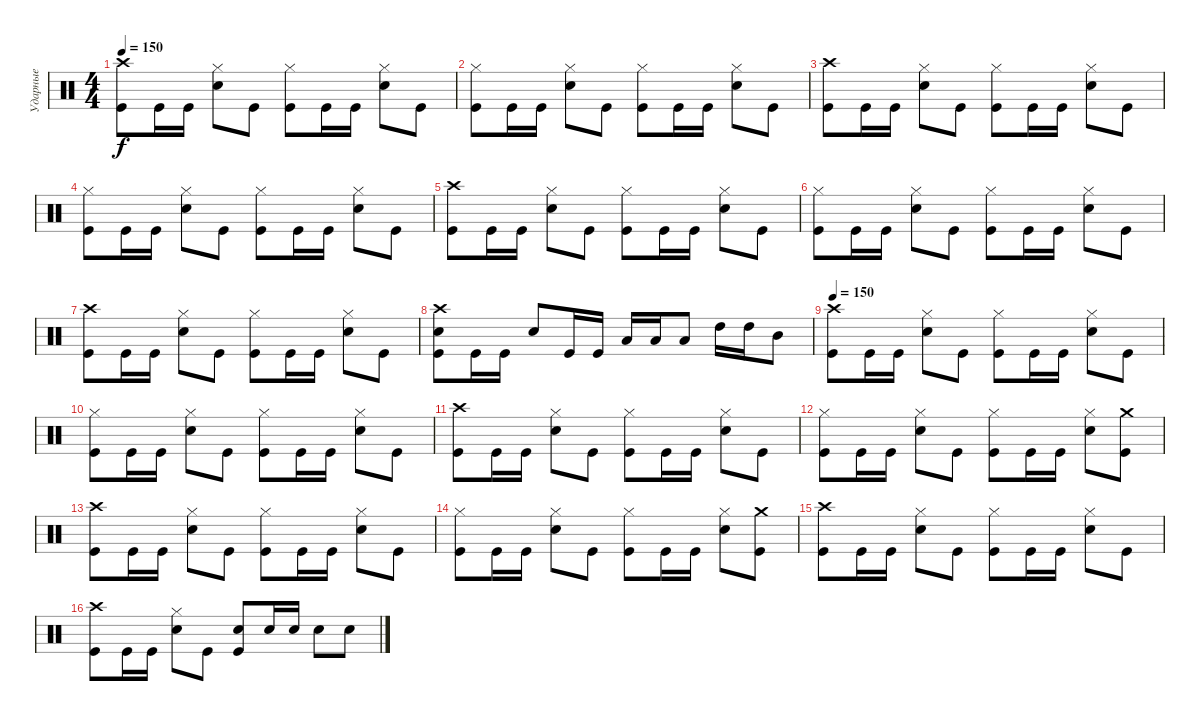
\track ("Ударные" "Ударные") {instrument percussion}
\staff {score}
\articulation defaults
\ts (4 4)
\tempo 150
\clef neutral
\ks c
("Crash high (hit)" "Kick (hit)").8{dy f} "Kick (hit)".16 "Kick (hit)".16 ("Hi-Hat (closed)" "Electric Snare (hit)").8 "Kick (hit)".8 ("Hi-Hat (closed)" "Kick (hit)").8 "Kick (hit)".16 "Kick (hit)".16 ("Hi-Hat (closed)" "Electric Snare (hit)").8 "Kick (hit)".8 |
("Hi-Hat (closed)" "Kick (hit)").8 "Kick (hit)".16 "Kick (hit)".16 ("Hi-Hat (closed)" "Electric Snare (hit)").8 "Kick (hit)".8 ("Hi-Hat (closed)" "Kick (hit)").8 "Kick (hit)".16 "Kick (hit)".16 ("Hi-Hat (closed)" "Electric Snare (hit)").8 "Kick (hit)".8 |
("Crash high (hit)" "Kick (hit)").8 "Kick (hit)".16 "Kick (hit)".16 ("Hi-Hat (closed)" "Electric Snare (hit)").8 "Kick (hit)".8 ("Hi-Hat (closed)" "Kick (hit)").8 "Kick (hit)".16 "Kick (hit)".16 ("Hi-Hat (closed)" "Electric Snare (hit)").8 "Kick (hit)".8 |
("Hi-Hat (closed)" "Kick (hit)").8 "Kick (hit)".16 "Kick (hit)".16 ("Hi-Hat (closed)" "Electric Snare (hit)").8 "Kick (hit)".8 ("Hi-Hat (closed)" "Kick (hit)").8 "Kick (hit)".16 "Kick (hit)".16 ("Hi-Hat (closed)" "Electric Snare (hit)").8 "Kick (hit)".8 |
("Crash high (hit)" "Kick (hit)").8 "Kick (hit)".16 "Kick (hit)".16 ("Hi-Hat (closed)" "Electric Snare (hit)").8 "Kick (hit)".8 ("Hi-Hat (closed)" "Kick (hit)").8 "Kick (hit)".16 "Kick (hit)".16 ("Hi-Hat (closed)" "Electric Snare (hit)").8 "Kick (hit)".8 |
("Hi-Hat (closed)" "Kick (hit)").8 "Kick (hit)".16 "Kick (hit)".16 ("Hi-Hat (closed)" "Electric Snare (hit)").8 "Kick (hit)".8 ("Hi-Hat (closed)" "Kick (hit)").8 "Kick (hit)".16 "Kick (hit)".16 ("Hi-Hat (closed)" "Electric Snare (hit)").8 "Kick (hit)".8 |
("Crash high (hit)" "Kick (hit)").8 "Kick (hit)".16 "Kick (hit)".16 ("Hi-Hat (closed)" "Electric Snare (hit)").8 "Kick (hit)".8 ("Hi-Hat (closed)" "Kick (hit)").8 "Kick (hit)".16 "Kick (hit)".16 ("Hi-Hat (closed)" "Electric Snare (hit)").8 "Kick (hit)".8 |
("Crash high (hit)" "Electric Snare (hit)" "Kick (hit)").8 "Kick (hit)".16 "Kick (hit)".16 "Electric Snare (hit)".8 "Kick (hit)".16 "Kick (hit)".16 "Low Tom (hit)".16 "Low Tom (hit)".16 "Low Tom (hit)".8 "High Tom (hit)".16 "High Tom (hit)".16 "Mid Tom (hit)".8 |
\tempo 150
("Crash high (hit)" "Kick (hit)").8 "Kick (hit)".16 "Kick (hit)".16 ("Hi-Hat (closed)" "Electric Snare (hit)").8 "Kick (hit)".8 ("Hi-Hat (closed)" "Kick (hit)").8 "Kick (hit)".16 "Kick (hit)".16 ("Hi-Hat (closed)" "Electric Snare (hit)").8 "Kick (hit)".8 |
("Hi-Hat (closed)" "Kick (hit)").8 "Kick (hit)".16 "Kick (hit)".16 ("Hi-Hat (closed)" "Electric Snare (hit)").8 "Kick (hit)".8 ("Hi-Hat (closed)" "Kick (hit)").8 "Kick (hit)".16 "Kick (hit)".16 ("Hi-Hat (closed)" "Electric Snare (hit)").8 "Kick (hit)".8 |
("Crash high (hit)" "Kick (hit)").8 "Kick (hit)".16 "Kick (hit)".16 ("Hi-Hat (closed)" "Electric Snare (hit)").8 "Kick (hit)".8 ("Hi-Hat (closed)" "Kick (hit)").8 "Kick (hit)".16 "Kick (hit)".16 ("Hi-Hat (closed)" "Electric Snare (hit)").8 "Kick (hit)".8 |
("Hi-Hat (closed)" "Kick (hit)").8 "Kick (hit)".16 "Kick (hit)".16 ("Hi-Hat (closed)" "Electric Snare (hit)").8 "Kick (hit)".8 ("Hi-Hat (closed)" "Kick (hit)").8 "Kick (hit)".16 "Kick (hit)".16 ("Hi-Hat (closed)" "Electric Snare (hit)").8 ("Crash medium (hit)" "Kick (hit)").8 |
("Crash high (hit)" "Kick (hit)").8 "Kick (hit)".16 "Kick (hit)".16 ("Hi-Hat (closed)" "Electric Snare (hit)").8 "Kick (hit)".8 ("Hi-Hat (closed)" "Kick (hit)").8 "Kick (hit)".16 "Kick (hit)".16 ("Hi-Hat (closed)" "Electric Snare (hit)").8 "Kick (hit)".8 |
("Hi-Hat (closed)" "Kick (hit)").8 "Kick (hit)".16 "Kick (hit)".16 ("Hi-Hat (closed)" "Electric Snare (hit)").8 "Kick (hit)".8 ("Hi-Hat (closed)" "Kick (hit)").8 "Kick (hit)".16 "Kick (hit)".16 ("Hi-Hat (closed)" "Electric Snare (hit)").8 ("Crash medium (hit)" "Kick (hit)").8 |
("Crash high (hit)" "Kick (hit)").8 "Kick (hit)".16 "Kick (hit)".16 ("Hi-Hat (closed)" "Electric Snare (hit)").8 "Kick (hit)".8 ("Hi-Hat (closed)" "Kick (hit)").8 "Kick (hit)".16 "Kick (hit)".16 ("Hi-Hat (closed)" "Electric Snare (hit)").8 "Kick (hit)".8 |
("Crash high (hit)" "Kick (hit)").8 "Kick (hit)".16 "Kick (hit)".16 ("Hi-Hat (closed)" "Electric Snare (hit)").8 "Kick (hit)".8 ("Electric Snare (hit)" "Kick (hit)").8 "Electric Snare (hit)".16 "Electric Snare (hit)".16 "Electric Snare (hit)".8 "Electric Snare (hit)".8
